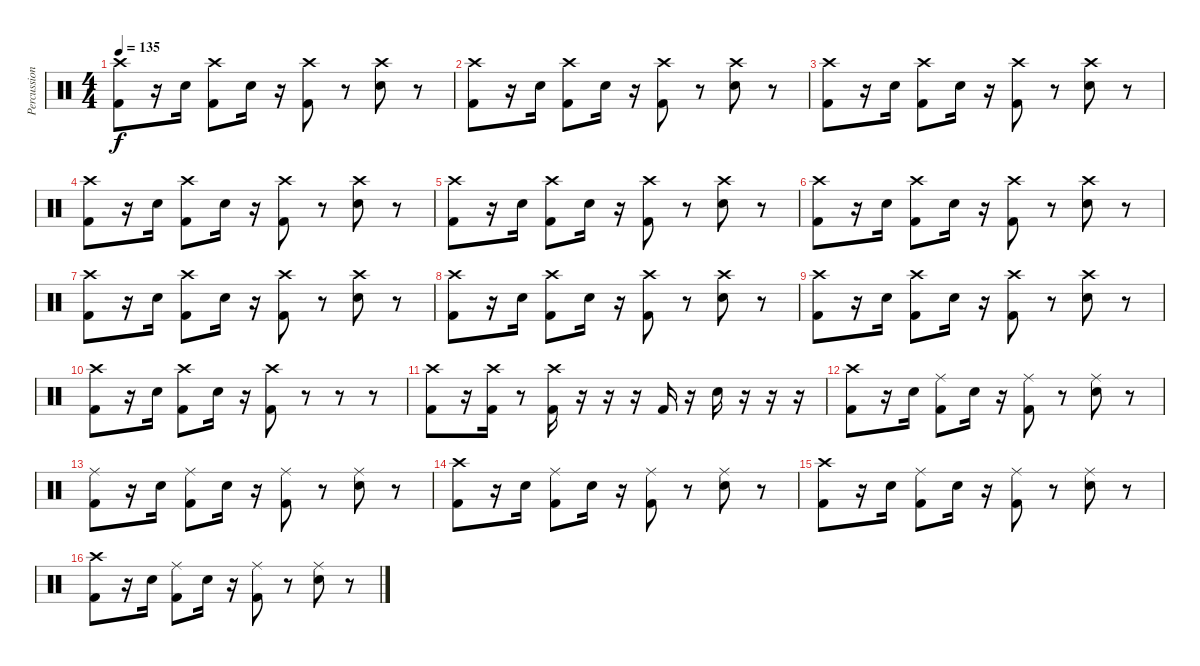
\track ("Percussions" "Percussion") {instrument percussion}
\staff {score}
\articulation defaults
\ts (4 4)
\tempo 135
\clef neutral
\ks c
("Crash high (hit)" "Kick (hit) 2").8{dy f} r.16 "Snare (hit) 2".16 ("Crash high (hit)" "Kick (hit) 2").8 "Snare (hit) 2".16 r.16 ("Crash high (hit)" "Kick (hit) 2").8 r.8 ("Crash high (hit)" "Snare (hit) 2").8 r.8 |
("Crash high (hit)" "Kick (hit) 2").8 r.16 "Snare (hit) 2".16 ("Crash high (hit)" "Kick (hit) 2").8 "Snare (hit) 2".16 r.16 ("Crash high (hit)" "Kick (hit) 2").8 r.8 ("Crash high (hit)" "Snare (hit) 2").8 r.8 |
("Crash high (hit)" "Kick (hit) 2").8 r.16 "Snare (hit) 2".16 ("Crash high (hit)" "Kick (hit) 2").8 "Snare (hit) 2".16 r.16 ("Crash high (hit)" "Kick (hit) 2").8 r.8 ("Crash high (hit)" "Snare (hit) 2").8 r.8 |
("Crash high (hit)" "Kick (hit) 2").8 r.16 "Snare (hit) 2".16 ("Crash high (hit)" "Kick (hit) 2").8 "Snare (hit) 2".16 r.16 ("Crash high (hit)" "Kick (hit) 2").8 r.8 ("Crash high (hit)" "Snare (hit) 2").8 r.8 |
("Crash high (hit)" "Kick (hit) 2").8 r.16 "Snare (hit) 2".16 ("Crash high (hit)" "Kick (hit) 2").8 "Snare (hit) 2".16 r.16 ("Crash high (hit)" "Kick (hit) 2").8 r.8 ("Crash high (hit)" "Snare (hit) 2").8 r.8 |
("Crash high (hit)" "Kick (hit) 2").8 r.16 "Snare (hit) 2".16 ("Crash high (hit)" "Kick (hit) 2").8 "Snare (hit) 2".16 r.16 ("Crash high (hit)" "Kick (hit) 2").8 r.8 ("Crash high (hit)" "Snare (hit) 2").8 r.8 |
("Crash high (hit)" "Kick (hit) 2").8 r.16 "Snare (hit) 2".16 ("Crash high (hit)" "Kick (hit) 2").8 "Snare (hit) 2".16 r.16 ("Crash high (hit)" "Kick (hit) 2").8 r.8 ("Crash high (hit)" "Snare (hit) 2").8 r.8 |
("Crash high (hit)" "Kick (hit) 2").8 r.16 "Snare (hit) 2".16 ("Crash high (hit)" "Kick (hit) 2").8 "Snare (hit) 2".16 r.16 ("Crash high (hit)" "Kick (hit) 2").8 r.8 ("Crash high (hit)" "Snare (hit) 2").8 r.8 |
("Crash high (hit)" "Kick (hit) 2").8 r.16 "Snare (hit) 2".16 ("Crash high (hit)" "Kick (hit) 2").8 "Snare (hit) 2".16 r.16 ("Crash high (hit)" "Kick (hit) 2").8 r.8 ("Crash high (hit)" "Snare (hit) 2").8 r.8 |
("Crash high (hit)" "Kick (hit) 2").8 r.16 "Snare (hit) 2".16 ("Crash high (hit)" "Kick (hit) 2").8 "Snare (hit) 2".16 r.16 ("Crash high (hit)" "Kick (hit) 2").8 r.8 r.8 r.8 |
("Crash high (hit)" "Kick (hit) 2").8 r.16 ("Crash high (hit)" "Kick (hit) 2").16 r.8 ("Crash high (hit)" "Kick (hit) 2").16 r.16 r.16 r.16 "Kick (hit) 2".16 r.16 "Electric Snare (hit)".16 r.16 r.16 r.16 |
("Crash high (hit)" "Kick (hit) 2").8 r.16 "Snare (hit) 2".16 ("Ride (middle)" "Kick (hit) 2").8 "Snare (hit) 2".16 r.16 ("Ride (middle)" "Kick (hit) 2").8 r.8 ("Ride (middle)" "Snare (hit) 2").8 r.8 |
("Ride (middle)" "Kick (hit) 2").8 r.16 "Snare (hit) 2".16 ("Ride (middle)" "Kick (hit) 2").8 "Snare (hit) 2".16 r.16 ("Ride (middle)" "Kick (hit) 2").8 r.8 ("Ride (middle)" "Snare (hit) 2").8 r.8 |
("Crash high (hit)" "Kick (hit) 2").8 r.16 "Snare (hit) 2".16 ("Ride (middle)" "Kick (hit) 2").8 "Snare (hit) 2".16 r.16 ("Ride (middle)" "Kick (hit) 2").8 r.8 ("Ride (middle)" "Snare (hit) 2").8 r.8 |
("Crash high (hit)" "Kick (hit) 2").8 r.16 "Snare (hit) 2".16 ("Ride (middle)" "Kick (hit) 2").8 "Snare (hit) 2".16 r.16 ("Ride (middle)" "Kick (hit) 2").8 r.8 ("Ride (middle)" "Snare (hit) 2").8 r.8 |
("Crash high (hit)" "Kick (hit) 2").8 r.16 "Snare (hit) 2".16 ("Ride (middle)" "Kick (hit) 2").8 "Snare (hit) 2".16 r.16 ("Ride (middle)" "Kick (hit) 2").8 r.8 ("Ride (middle)" "Snare (hit) 2").8 r.8
